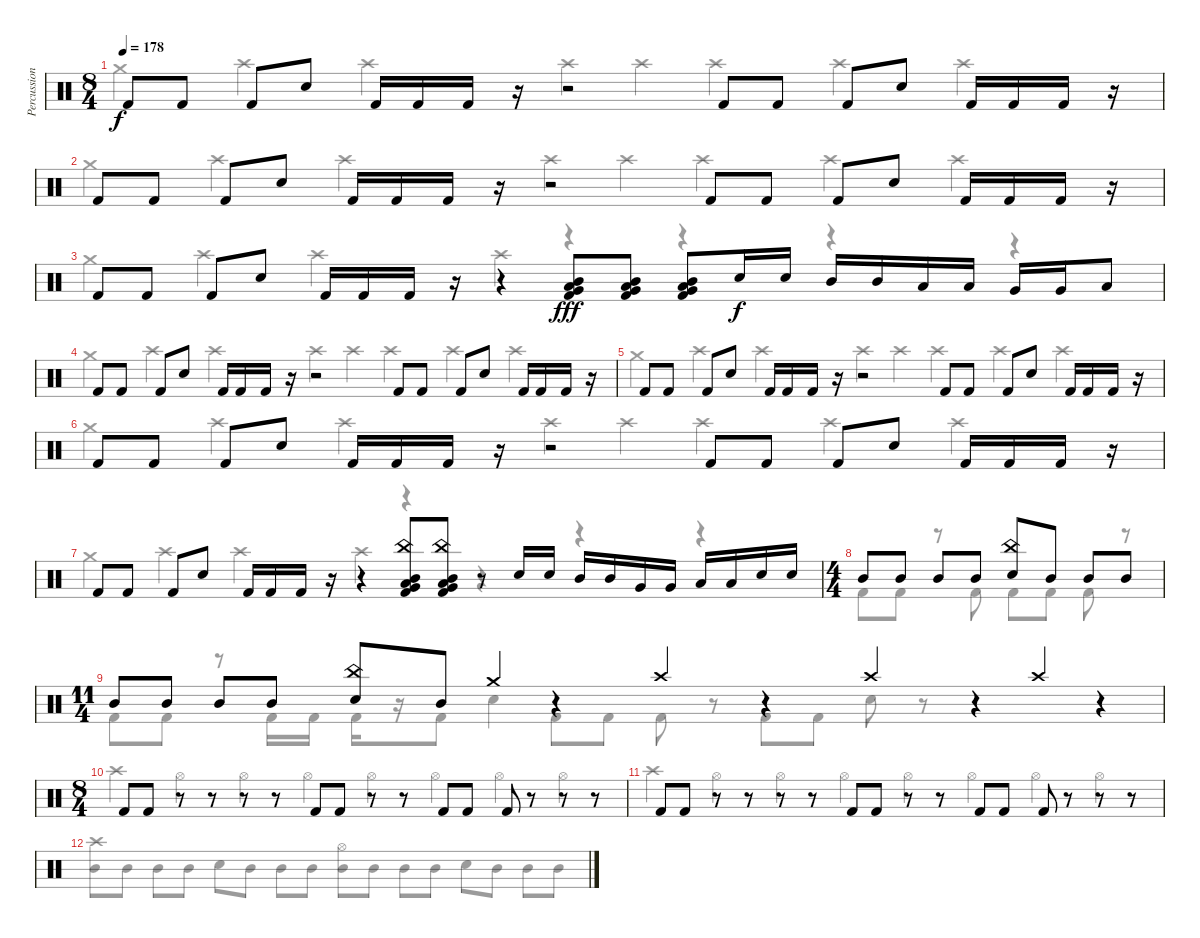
\track ("Percussion" "Percussion") {instrument percussion}
\staff {score}
\articulation defaults
\voice
\ts (8 4)
\tempo 178
\clef neutral
\ks c "Kick (hit) 2".8{dy f} "Kick (hit) 2".8 "Kick (hit) 2".8 "Electric Snare (hit)".8 "Kick (hit) 2".16 "Kick (hit) 2".16 "Kick (hit) 2".16
r.16 r.2 "Kick (hit) 2".8 "Kick (hit) 2".8 "Kick (hit) 2".8 "Electric Snare (hit)".8 "Kick (hit) 2".16 "Kick (hit) 2".16 "Kick (hit) 2".16 r.16 |
"Kick (hit) 2".8 "Kick (hit) 2".8 "Kick (hit) 2".8 "Electric Snare (hit)".8 "Kick (hit) 2".16 "Kick (hit) 2".16 "Kick (hit) 2".16 r.16 r.2 "Kick (hit) 2".8 "Kick (hit) 2".8 "Kick (hit) 2".8 "Electric Snare (hit)".8 "Kick (hit) 2".16 "Kick (hit) 2".16 "Kick (hit) 2".16 r.16 |
"Kick (hit) 2".8 "Kick (hit) 2".8 "Kick (hit) 2".8 "Electric Snare (hit)".8 "Kick (hit) 2".16 "Kick (hit) 2".16 "Kick (hit) 2".16 r.16 r.4 ("Kick (hit) 2" "Very Low Tom (hit)" "Mid Tom (hit)" "Low Floor Tom (hit)").8{dy fff} ("Kick (hit) 2" "Very Low Tom (hit)" "Mid Tom (hit)" "Low Floor Tom (hit)").8 ("Kick (hit) 2" "Very Low Tom (hit)" "Mid Tom (hit)" "Low Floor Tom (hit)").8 "Electric Snare (hit)".16{dy f} "Electric Snare (hit)".16 "Mid Tom (hit)".16 "Mid Tom (hit)".16 "Low Floor Tom (hit)".16 "Low Floor Tom (hit)".16 "Very Low Tom (hit)".16 "Very Low Tom (hit)".16 "Low Floor Tom (hit)".8 |
"Kick (hit) 2".8 "Kick (hit) 2".8 "Kick (hit) 2".8 "Electric Snare (hit)".8 "Kick (hit) 2".16 "Kick (hit) 2".16 "Kick (hit) 2".16 r.16 r.2 "Kick (hit) 2".8 "Kick (hit) 2".8 "Kick (hit) 2".8 "Electric Snare (hit)".8 "Kick (hit) 2".16 "Kick (hit) 2".16 "Kick (hit) 2".16 r.16 |
"Kick (hit) 2".8 "Kick (hit) 2".8 "Kick (hit) 2".8 "Electric Snare (hit)".8 "Kick (hit) 2".16 "Kick (hit) 2".16 "Kick (hit) 2".16 r.16 r.2 "Kick (hit) 2".8 "Kick (hit) 2".8 "Kick (hit) 2".8 "Electric Snare (hit)".8 "Kick (hit) 2".16 "Kick (hit) 2".16 "Kick (hit) 2".16 r.16 |
"Kick (hit) 2".8 "Kick (hit) 2".8 "Kick (hit) 2".8 "Electric Snare (hit)".8 "Kick (hit) 2".16 "Kick (hit) 2".16 "Kick (hit) 2".16 r.16 r.2 "Kick (hit) 2".8 "Kick (hit) 2".8 "Kick (hit) 2".8 "Electric Snare (hit)".8 "Kick (hit) 2".16 "Kick (hit) 2".16 "Kick (hit) 2".16 r.16 |
"Kick (hit) 2".8 "Kick (hit) 2".8 "Kick (hit) 2".8 "Electric Snare (hit)".8 "Kick (hit) 2".16 "Kick (hit) 2".16 "Kick (hit) 2".16 r.16 r.4 ("China (hit)" "Kick (hit) 2" "Very Low Tom (hit)" "Low Floor Tom (hit)" "Mid Tom (hit)").8 ("China (hit)" "Kick (hit) 2" "Very Low Tom (hit)" "Low Floor Tom (hit)" "Mid Tom (hit)").8 r.8 "Electric Snare (hit)".16 "Electric Snare (hit)".16 "Mid Tom (hit)".16 "Mid Tom (hit)".16 "Very Low Tom (hit)".16 "Very Low Tom (hit)".16 "Low Floor Tom (hit)".16 "Low Floor Tom (hit)".16 "Electric Snare (hit)".16 "Electric Snare (hit)".16 |
\ts (4 4)
"Mid Tom (hit)".8 "Mid Tom (hit)".8 "Mid Tom (hit)".8 "Mid Tom (hit)".8 ("China (hit)" "Electric Snare (hit)").8 "Mid Tom (hit)".8 "Mid Tom (hit)".8 "Mid Tom (hit)".8 |
\ts (11 4)
"Mid Tom (hit)".8 "Mid Tom (hit)".8 "Mid Tom (hit)".8 "Mid Tom (hit)".8 ("China (hit)" "Electric Snare (hit)").8 "Mid Tom (hit)".8 "Crash medium (hit)".4 r.4 "Crash high (hit)".4 r.4 "Crash high (hit)".4 r.4 "Crash high (hit)".4 r.4 |
\ts (8 4)
"Kick (hit) 2".8 "Kick (hit) 2".8 r.8 r.8 r.8 r.8 "Kick (hit) 2".8 "Kick (hit) 2".8 r.8 r.8 "Kick (hit) 2".8 "Kick (hit) 2".8 "Kick (hit) 2".8 r.8 r.8 r.8 |
"Kick (hit) 2".8 "Kick (hit) 2".8 r.8 r.8 r.8 r.8 "Kick (hit) 2".8 "Kick (hit) 2".8 r.8 r.8 "Kick (hit) 2".8 "Kick (hit) 2".8 "Kick (hit) 2".8 r.8 r.8 r.8 |
\voice
\clef neutral
\ottava regular
\simile none
\ks c "Crash medium (hit)".4{dy f} "Crash high (hit)".4 "Crash high (hit)".4 "Crash high (hit)".4 "Crash high (hit)".4 "Crash high (hit)".4 "Crash high (hit)".4 "Crash high (hit)".4
|
"Crash medium (hit)".4 "Crash high (hit)".4 "Crash high (hit)".4 "Crash high (hit)".4 "Crash high (hit)".4 "Crash high (hit)".4 "Crash high (hit)".4 "Crash high (hit)".4 |
"Crash medium (hit)".4 "Crash high (hit)".4 "Crash high (hit)".4 "Crash high (hit)".4 r.4 r.4 r.4 r.4 |
"Crash medium (hit)".4 "Crash high (hit)".4 "Crash high (hit)".4 "Crash high (hit)".4 "Crash high (hit)".4 "Crash high (hit)".4 "Crash high (hit)".4 "Crash high (hit)".4 |
"Crash medium (hit)".4 "Crash high (hit)".4 "Crash high (hit)".4 "Crash high (hit)".4 "Crash high (hit)".4 "Crash high (hit)".4 "Crash high (hit)".4 "Crash high (hit)".4 |
"Crash medium (hit)".4 "Crash high (hit)".4 "Crash high (hit)".4 "Crash high (hit)".4 "Crash high (hit)".4 "Crash high (hit)".4 "Crash high (hit)".4 "Crash high (hit)".4 |
"Crash medium (hit)".4 "Crash high (hit)".4 "Crash high (hit)".4 "Crash high (hit)".4 r.4 r.4 r.4 r.4 |
"Kick (hit) 2".8 "Kick (hit) 2".8 r.8 "Kick (hit) 2".8 "Kick (hit) 2".8 "Kick (hit) 2".8 "Kick (hit) 2".8 r.8 |
"Kick (hit) 2".8 "Kick (hit) 2".8 r.8 "Kick (hit) 2".16 "Kick (hit) 2".16 "Kick (hit) 2".16 r.16 "Kick (hit) 2".8 "Electric Snare (hit)".4 "Kick (hit) 2".8 "Kick (hit) 2".8 "Kick (hit) 2".8 r.8 "Kick (hit) 2".8 "Kick (hit) 2".8 "Electric Snare (hit)".8 r.8 |
"Crash high (hit)".4 "Hi-Hat (open)".4 "Hi-Hat (open)".4 "Hi-Hat (open)".4 "Hi-Hat (open)".4 "Hi-Hat (open)".4 "Hi-Hat (open)".4 "Hi-Hat (open)".4 |
"Crash high (hit)".4 "Hi-Hat (open)".4 "Hi-Hat (open)".4 "Hi-Hat (open)".4 "Hi-Hat (open)".4 "Hi-Hat (open)".4 "Hi-Hat (open)".4 "Hi-Hat (open)".4 |
("Crash high (hit)" "Mid Tom (hit)").8 "Mid Tom (hit)".8 "Mid Tom (hit)".8 "Mid Tom (hit)".8 "Electric Snare (hit)".8 "Mid Tom (hit)".8 "Mid Tom (hit)".8 "Mid Tom (hit)".8 ("Hi-Hat (open)" "Mid Tom (hit)").8 "Mid Tom (hit)".8 "Mid Tom (hit)".8 "Mid Tom (hit)".8 "Electric Snare (hit)".8 "Mid Tom (hit)".8 "Mid Tom (hit)".8 "Mid Tom (hit)".8
